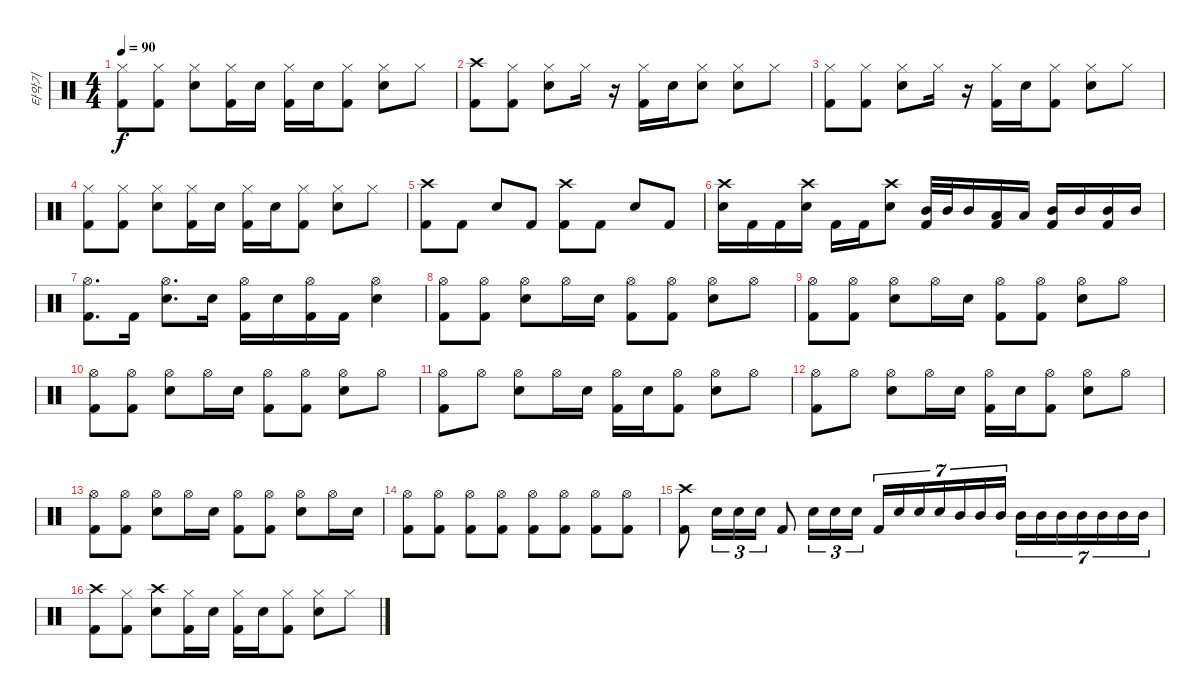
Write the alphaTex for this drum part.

\track ("타악기" "타악기") {instrument percussion}
\staff {score}
\articulation defaults
\ts (4 4)
\tempo 90
\clef neutral
\ks c
("Hi-Hat (closed)" "Kick (hit) 2").8{dy f} ("Hi-Hat (closed)" "Kick (hit) 2").8 ("Hi-Hat (closed)" "Electric Snare (hit)").8 ("Hi-Hat (closed)" "Kick (hit) 2").16 "Electric Snare (hit)".16 ("Hi-Hat (closed)" "Kick (hit) 2").16 "Electric Snare (hit)".16 ("Hi-Hat (closed)" "Kick (hit) 2").8 ("Hi-Hat (closed)" "Electric Snare (hit)").8 "Hi-Hat (closed)".8 |
("Crash high (hit)" "Kick (hit) 2").8 ("Hi-Hat (closed)" "Kick (hit) 2").8 ("Hi-Hat (closed)" "Electric Snare (hit)").8 "Hi-Hat (closed)".16 r.16 ("Hi-Hat (closed)" "Kick (hit) 2").16 "Electric Snare (hit)".16 ("Hi-Hat (closed)" "Electric Snare (hit)").8 ("Hi-Hat (closed)" "Electric Snare (hit)").8 "Hi-Hat (closed)".8 |
("Hi-Hat (closed)" "Kick (hit) 2").8 ("Hi-Hat (closed)" "Kick (hit) 2").8 ("Hi-Hat (closed)" "Electric Snare (hit)").8 "Hi-Hat (closed)".16 r.16 ("Hi-Hat (closed)" "Kick (hit) 2").16 "Electric Snare (hit)".16 ("Hi-Hat (closed)" "Kick (hit) 2").8 ("Hi-Hat (closed)" "Electric Snare (hit)").8 "Hi-Hat (closed)".8 |
("Hi-Hat (closed)" "Kick (hit) 2").8 ("Hi-Hat (closed)" "Kick (hit) 2").8 ("Hi-Hat (closed)" "Electric Snare (hit)").8 ("Hi-Hat (closed)" "Kick (hit) 2").16 "Electric Snare (hit)".16 ("Hi-Hat (closed)" "Kick (hit) 2").16 "Electric Snare (hit)".16 ("Hi-Hat (closed)" "Kick (hit) 2").8 ("Hi-Hat (closed)" "Electric Snare (hit)").8 "Hi-Hat (closed)".8 |
("Crash high (hit)" "Kick (hit) 2").8 "Kick (hit) 2".8 "Electric Snare (hit)".8 "Kick (hit) 2".8 ("Crash high (hit)" "Kick (hit) 2").8 "Kick (hit) 2".8 "Electric Snare (hit)".8 "Kick (hit) 2".8 |
("Crash high (hit)" "Electric Snare (hit)").16 "Kick (hit) 2".16 "Kick (hit) 2".16 ("Crash high (hit)" "Electric Snare (hit)").16 "Kick (hit) 2".16 "Kick (hit) 2".16 ("Crash high (hit)" "Electric Snare (hit)").8 ("Mid Tom (hit)" "Kick (hit) 2").32 "Mid Tom (hit)".32 "Mid Tom (hit)".16 ("Low Floor Tom (hit)" "Kick (hit) 2").16 "Low Floor Tom (hit)".16 ("Mid Tom (hit)" "Kick (hit) 2").16 "Mid Tom (hit)".16 ("Mid Tom (hit)" "Kick (hit) 2").16 "Mid Tom (hit)".16 |
("Kick (hit) 2" "Hi-Hat (open)").8{d} "Kick (hit) 2".16 ("Electric Snare (hit)" "Hi-Hat (open)").8{d} "Electric Snare (hit)".16 ("Kick (hit) 2" "Hi-Hat (open)").16 "Electric Snare (hit)".16 ("Kick (hit) 2" "Hi-Hat (open)").16 "Kick (hit) 2".16 ("Electric Snare (hit)" "Hi-Hat (open)").4 |
("Kick (hit) 2" "Hi-Hat (open)").8 ("Kick (hit) 2" "Hi-Hat (open)").8 ("Electric Snare (hit)" "Hi-Hat (open)").8 "Hi-Hat (open)".16 "Electric Snare (hit)".16 ("Kick (hit) 2" "Hi-Hat (open)").8 ("Kick (hit) 2" "Hi-Hat (open)").8 ("Electric Snare (hit)" "Hi-Hat (open)").8 "Hi-Hat (open)".8 |
("Kick (hit) 2" "Hi-Hat (open)").8 ("Kick (hit) 2" "Hi-Hat (open)").8 ("Electric Snare (hit)" "Hi-Hat (open)").8 "Hi-Hat (open)".16 "Electric Snare (hit)".16 ("Kick (hit) 2" "Hi-Hat (open)").8 ("Kick (hit) 2" "Hi-Hat (open)").8 ("Electric Snare (hit)" "Hi-Hat (open)").8 "Hi-Hat (open)".8 |
("Kick (hit) 2" "Hi-Hat (open)").8 ("Kick (hit) 2" "Hi-Hat (open)").8 ("Electric Snare (hit)" "Hi-Hat (open)").8 "Hi-Hat (open)".16 "Electric Snare (hit)".16 ("Kick (hit) 2" "Hi-Hat (open)").8 ("Kick (hit) 2" "Hi-Hat (open)").8 ("Electric Snare (hit)" "Hi-Hat (open)").8 "Hi-Hat (open)".8 |
("Kick (hit) 2" "Hi-Hat (open)").8 "Hi-Hat (open)".8 ("Electric Snare (hit)" "Hi-Hat (open)").8 "Hi-Hat (open)".16 "Electric Snare (hit)".16 ("Kick (hit) 2" "Hi-Hat (open)").16 "Electric Snare (hit)".16 ("Kick (hit) 2" "Hi-Hat (open)").8 ("Electric Snare (hit)" "Hi-Hat (open)").8 "Hi-Hat (open)".8 |
("Kick (hit) 2" "Hi-Hat (open)").8 "Hi-Hat (open)".8 ("Electric Snare (hit)" "Hi-Hat (open)").8 "Hi-Hat (open)".16 "Electric Snare (hit)".16 ("Kick (hit) 2" "Hi-Hat (open)").16 "Electric Snare (hit)".16 ("Kick (hit) 2" "Hi-Hat (open)").8 ("Electric Snare (hit)" "Hi-Hat (open)").8 "Hi-Hat (open)".8 |
("Kick (hit) 2" "Hi-Hat (open)").8 ("Kick (hit) 2" "Hi-Hat (open)").8 ("Electric Snare (hit)" "Hi-Hat (open)").8 "Hi-Hat (open)".16 "Electric Snare (hit)".16 ("Kick (hit) 2" "Hi-Hat (open)").8 ("Kick (hit) 2" "Hi-Hat (open)").8 ("Electric Snare (hit)" "Hi-Hat (open)").8 "Hi-Hat (open)".16 "Electric Snare (hit)".16 |
("Kick (hit) 2" "Hi-Hat (open)").8 ("Kick (hit) 2" "Hi-Hat (open)").8 ("Kick (hit) 2" "Hi-Hat (open)").8 ("Kick (hit) 2" "Hi-Hat (open)").8 ("Kick (hit) 2" "Hi-Hat (open)").8 ("Kick (hit) 2" "Hi-Hat (open)").8 ("Kick (hit) 2" "Hi-Hat (open)").8 ("Kick (hit) 2" "Hi-Hat (open)").8 |
("Kick (hit) 2" "Crash high (hit)").8 "Electric Snare (hit)".16{tu (3 2)} "Electric Snare (hit)".16{tu (3 2)} "Electric Snare (hit)".16{tu (3 2)} "Kick (hit) 2".8 "Electric Snare (hit)".16{tu (3 2)} "Electric Snare (hit)".16{tu (3 2)} "Electric Snare (hit)".16{tu (3 2)} "Kick (hit) 2".16{tu (7 4)} "Electric Snare (hit)".16{tu (7 4)} "Electric Snare (hit)".16{tu (7 4)} "Electric Snare (hit)".16{tu (7 4)} "Mid Tom (hit)".16{tu (7 4)} "Mid Tom (hit)".16{tu (7 4)} "Mid Tom (hit)".16{tu (7 4)} "Mid Tom (hit)".16{tu (7 4)} "Mid Tom (hit)".16{tu (7 4)} "Mid Tom (hit)".16{tu (7 4)} "Mid Tom (hit)".16{tu (7 4)} "Mid Tom (hit)".16{tu (7 4)} "Mid Tom (hit)".16{tu (7 4)} "Mid Tom (hit)".16{tu (7 4)} |
("Crash high (hit)" "Kick (hit) 2").8 ("Hi-Hat (closed)" "Kick (hit) 2").8 ("Crash high (hit)" "Electric Snare (hit)").8 ("Hi-Hat (closed)" "Kick (hit) 2").16 "Electric Snare (hit)".16 ("Hi-Hat (closed)" "Kick (hit) 2").16 "Electric Snare (hit)".16 ("Hi-Hat (closed)" "Kick (hit) 2").8 ("Hi-Hat (closed)" "Electric Snare (hit)").8 "Hi-Hat (closed)".8
